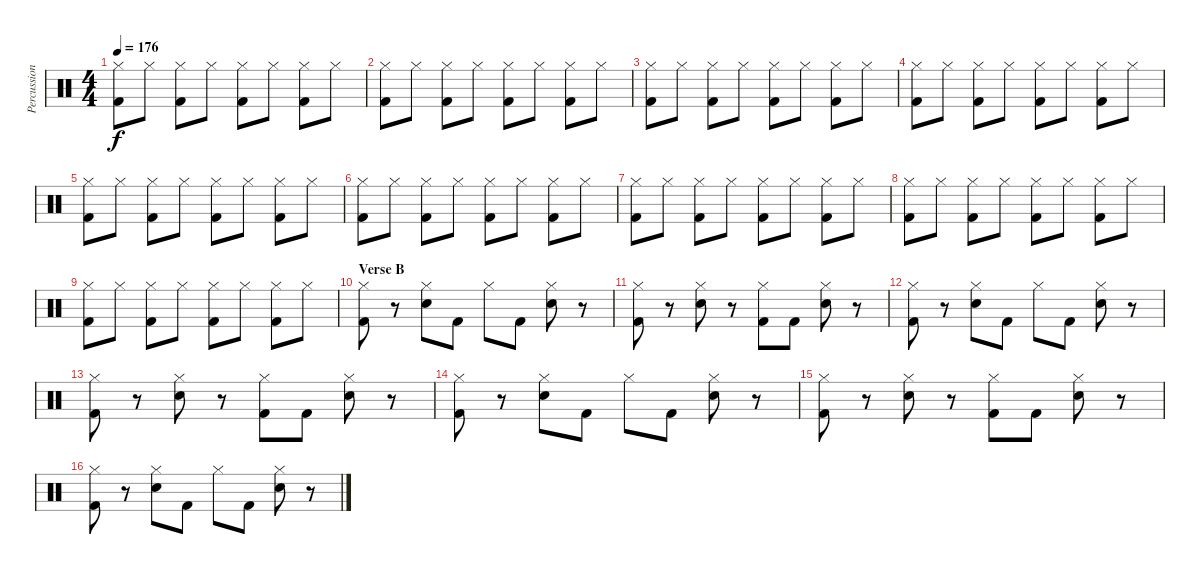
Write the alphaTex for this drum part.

\track ("Percussion" "Percussion") {instrument percussion}
\staff {score}
\articulation defaults
\ts (4 4)
\tempo 176
\clef neutral
\ks c
("Hi-Hat (closed)" "Kick (hit) 2").8{dy f} "Hi-Hat (closed)".8 ("Hi-Hat (closed)" "Kick (hit) 2").8 "Hi-Hat (closed)".8 ("Hi-Hat (closed)" "Kick (hit) 2").8 "Hi-Hat (closed)".8 ("Hi-Hat (closed)" "Kick (hit) 2").8 "Hi-Hat (closed)".8 |
("Hi-Hat (closed)" "Kick (hit) 2").8 "Hi-Hat (closed)".8 ("Hi-Hat (closed)" "Kick (hit) 2").8 "Hi-Hat (closed)".8 ("Hi-Hat (closed)" "Kick (hit) 2").8 "Hi-Hat (closed)".8 ("Hi-Hat (closed)" "Kick (hit) 2").8 "Hi-Hat (closed)".8 |
("Hi-Hat (closed)" "Kick (hit) 2").8 "Hi-Hat (closed)".8 ("Hi-Hat (closed)" "Kick (hit) 2").8 "Hi-Hat (closed)".8 ("Hi-Hat (closed)" "Kick (hit) 2").8 "Hi-Hat (closed)".8 ("Hi-Hat (closed)" "Kick (hit) 2").8 "Hi-Hat (closed)".8 |
("Hi-Hat (closed)" "Kick (hit) 2").8 "Hi-Hat (closed)".8 ("Hi-Hat (closed)" "Kick (hit) 2").8 "Hi-Hat (closed)".8 ("Hi-Hat (closed)" "Kick (hit) 2").8 "Hi-Hat (closed)".8 ("Hi-Hat (closed)" "Kick (hit) 2").8 "Hi-Hat (closed)".8 |
("Hi-Hat (closed)" "Kick (hit) 2").8 "Hi-Hat (closed)".8 ("Hi-Hat (closed)" "Kick (hit) 2").8 "Hi-Hat (closed)".8 ("Hi-Hat (closed)" "Kick (hit) 2").8 "Hi-Hat (closed)".8 ("Hi-Hat (closed)" "Kick (hit) 2").8 "Hi-Hat (closed)".8 |
("Hi-Hat (closed)" "Kick (hit) 2").8 "Hi-Hat (closed)".8 ("Hi-Hat (closed)" "Kick (hit) 2").8 "Hi-Hat (closed)".8 ("Hi-Hat (closed)" "Kick (hit) 2").8 "Hi-Hat (closed)".8 ("Hi-Hat (closed)" "Kick (hit) 2").8 "Hi-Hat (closed)".8 |
("Hi-Hat (closed)" "Kick (hit) 2").8 "Hi-Hat (closed)".8 ("Hi-Hat (closed)" "Kick (hit) 2").8 "Hi-Hat (closed)".8 ("Hi-Hat (closed)" "Kick (hit) 2").8 "Hi-Hat (closed)".8 ("Hi-Hat (closed)" "Kick (hit) 2").8 "Hi-Hat (closed)".8 |
("Hi-Hat (closed)" "Kick (hit) 2").8 "Hi-Hat (closed)".8 ("Hi-Hat (closed)" "Kick (hit) 2").8 "Hi-Hat (closed)".8 ("Hi-Hat (closed)" "Kick (hit) 2").8 "Hi-Hat (closed)".8 ("Hi-Hat (closed)" "Kick (hit) 2").8 "Hi-Hat (closed)".8 |
("Hi-Hat (closed)" "Kick (hit) 2").8 "Hi-Hat (closed)".8 ("Hi-Hat (closed)" "Kick (hit) 2").8 "Hi-Hat (closed)".8 ("Hi-Hat (closed)" "Kick (hit) 2").8 "Hi-Hat (closed)".8 ("Hi-Hat (closed)" "Kick (hit) 2").8 "Hi-Hat (closed)".8 |
\section ("" "Verse B")
("Hi-Hat (closed)" "Kick (hit) 2").8 r.8 ("Hi-Hat (closed)" "Snare (hit) 2").8 "Kick (hit) 2".8 "Hi-Hat (closed)".8 "Kick (hit) 2".8 ("Hi-Hat (closed)" "Snare (hit) 2").8 r.8 |
("Hi-Hat (closed)" "Kick (hit) 2").8 r.8 ("Hi-Hat (closed)" "Snare (hit) 2").8 r.8 ("Hi-Hat (closed)" "Kick (hit) 2").8 "Kick (hit) 2".8 ("Hi-Hat (closed)" "Snare (hit) 2").8 r.8 |
("Hi-Hat (closed)" "Kick (hit) 2").8 r.8 ("Hi-Hat (closed)" "Snare (hit) 2").8 "Kick (hit) 2".8 "Hi-Hat (closed)".8 "Kick (hit) 2".8 ("Hi-Hat (closed)" "Snare (hit) 2").8 r.8 |
("Hi-Hat (closed)" "Kick (hit) 2").8 r.8 ("Hi-Hat (closed)" "Snare (hit) 2").8 r.8 ("Hi-Hat (closed)" "Kick (hit) 2").8 "Kick (hit) 2".8 ("Hi-Hat (closed)" "Snare (hit) 2").8 r.8 |
("Hi-Hat (closed)" "Kick (hit) 2").8 r.8 ("Hi-Hat (closed)" "Snare (hit) 2").8 "Kick (hit) 2".8 "Hi-Hat (closed)".8 "Kick (hit) 2".8 ("Hi-Hat (closed)" "Snare (hit) 2").8 r.8 |
("Hi-Hat (closed)" "Kick (hit) 2").8 r.8 ("Hi-Hat (closed)" "Snare (hit) 2").8 r.8 ("Hi-Hat (closed)" "Kick (hit) 2").8 "Kick (hit) 2".8 ("Hi-Hat (closed)" "Snare (hit) 2").8 r.8 |
("Hi-Hat (closed)" "Kick (hit) 2").8 r.8 ("Hi-Hat (closed)" "Snare (hit) 2").8 "Kick (hit) 2".8 "Hi-Hat (closed)".8 "Kick (hit) 2".8 ("Hi-Hat (closed)" "Snare (hit) 2").8 r.8
